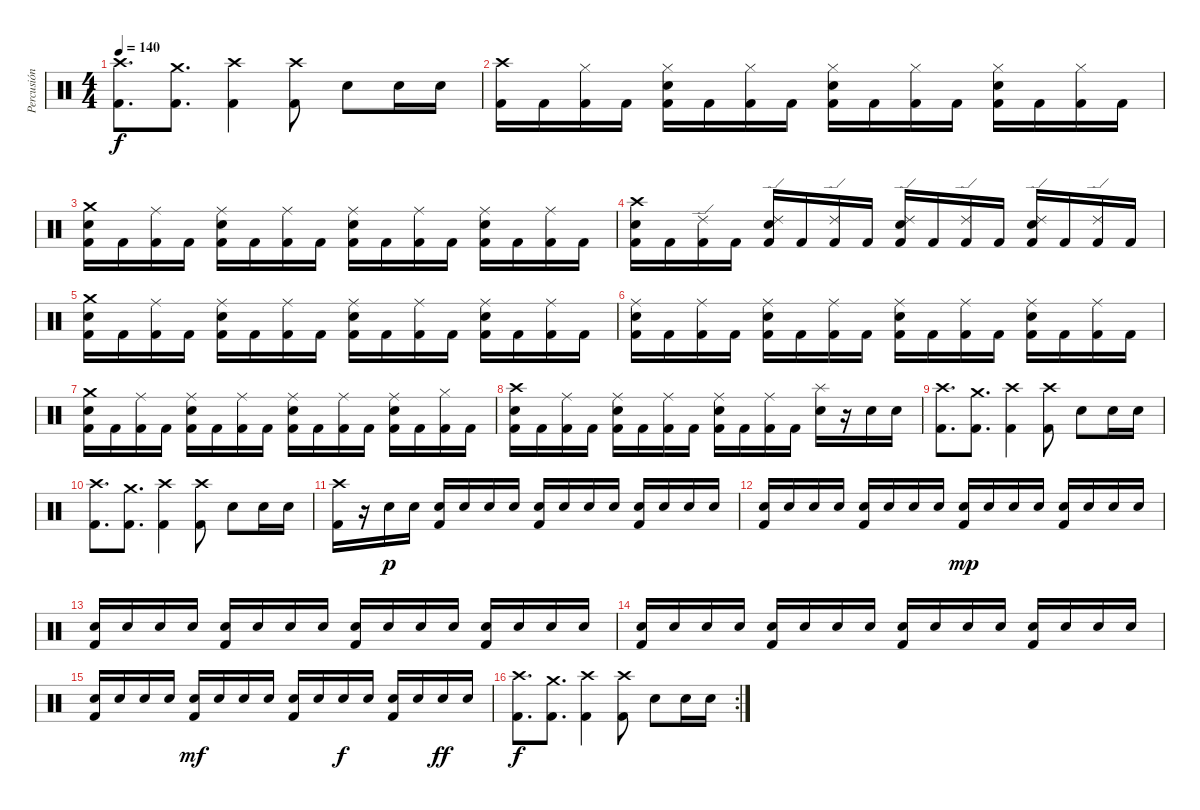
\track ("Percusión" "Percusión") {instrument percussion}
\staff {score}
\articulation defaults
\ts (4 4)
\tempo 140
\clef neutral
\ks c
("Crash high (hit)" "Kick (hit) 2").8{d dy f} ("Crash medium (hit)" "Kick (hit) 2").8{d} ("Crash high (hit)" "Kick (hit) 2").4 ("Crash high (hit)" "Kick (hit) 2").8 "Electric Snare (hit)".8 "Electric Snare (hit)".16 "Electric Snare (hit)".16 |
("Crash high (hit)" "Kick (hit) 2").16 "Kick (hit) 2".16 ("Hi-Hat (closed)" "Kick (hit) 2").16 "Kick (hit) 2".16 ("Hi-Hat (closed)" "Electric Snare (hit)" "Kick (hit) 2").16 "Kick (hit) 2".16 ("Hi-Hat (closed)" "Kick (hit) 2").16 "Kick (hit) 2".16 ("Hi-Hat (closed)" "Electric Snare (hit)" "Kick (hit) 2").16 "Kick (hit) 2".16 ("Hi-Hat (closed)" "Kick (hit) 2").16 "Kick (hit) 2".16 ("Hi-Hat (closed)" "Electric Snare (hit)" "Kick (hit) 2").16 "Kick (hit) 2".16 ("Hi-Hat (closed)" "Kick (hit) 2").16 "Kick (hit) 2".16 |
("Crash medium (hit)" "Electric Snare (hit)" "Kick (hit) 2").16 "Kick (hit) 2".16 ("Ride (middle)" "Kick (hit) 2").16 "Kick (hit) 2".16 ("Ride (middle)" "Electric Snare (hit)" "Kick (hit) 2").16 "Kick (hit) 2".16 ("Ride (middle)" "Kick (hit) 2").16 "Kick (hit) 2".16 ("Ride (middle)" "Electric Snare (hit)" "Kick (hit) 2").16 "Kick (hit) 2".16 ("Ride (middle)" "Kick (hit) 2").16 "Kick (hit) 2".16 ("Ride (middle)" "Electric Snare (hit)" "Kick (hit) 2").16 "Kick (hit) 2".16 ("Ride (middle)" "Kick (hit) 2").16 "Kick (hit) 2".16 |
("Crash high (hit)" "Electric Snare (hit)" "Kick (hit) 2").16 "Kick (hit) 2".16 ("Ride (edge) 2" "Kick (hit) 2").16 "Kick (hit) 2".16 ("Ride (edge) 2" "Electric Snare (hit)" "Kick (hit) 2").16 "Kick (hit) 2".16 ("Ride (edge) 2" "Kick (hit) 2").16 "Kick (hit) 2".16 ("Ride (edge) 2" "Electric Snare (hit)" "Kick (hit) 2").16 "Kick (hit) 2".16 ("Ride (edge) 2" "Kick (hit) 2").16 "Kick (hit) 2".16 ("Ride (edge) 2" "Electric Snare (hit)" "Kick (hit) 2").16 "Kick (hit) 2".16 ("Ride (edge) 2" "Kick (hit) 2").16 "Kick (hit) 2".16 |
("Crash medium (hit)" "Electric Snare (hit)" "Kick (hit) 2").16 "Kick (hit) 2".16 ("Ride (middle)" "Kick (hit) 2").16 "Kick (hit) 2".16 ("Ride (middle)" "Electric Snare (hit)" "Kick (hit) 2").16 "Kick (hit) 2".16 ("Ride (middle)" "Kick (hit) 2").16 "Kick (hit) 2".16 ("Ride (middle)" "Electric Snare (hit)" "Kick (hit) 2").16 "Kick (hit) 2".16 ("Ride (middle)" "Kick (hit) 2").16 "Kick (hit) 2".16 ("Ride (middle)" "Electric Snare (hit)" "Kick (hit) 2").16 "Kick (hit) 2".16 ("Ride (middle)" "Kick (hit) 2").16 "Kick (hit) 2".16 |
("Ride (middle)" "Electric Snare (hit)" "Kick (hit) 2").16 "Kick (hit) 2".16 ("Ride (middle)" "Kick (hit) 2").16 "Kick (hit) 2".16 ("Ride (middle)" "Electric Snare (hit)" "Kick (hit) 2").16 "Kick (hit) 2".16 ("Ride (middle)" "Kick (hit) 2").16 "Kick (hit) 2".16 ("Ride (middle)" "Electric Snare (hit)" "Kick (hit) 2").16 "Kick (hit) 2".16 ("Ride (middle)" "Kick (hit) 2").16 "Kick (hit) 2".16 ("Ride (middle)" "Electric Snare (hit)" "Kick (hit) 2").16 "Kick (hit) 2".16 ("Ride (middle)" "Kick (hit) 2").16 "Kick (hit) 2".16 |
("Crash medium (hit)" "Electric Snare (hit)" "Kick (hit) 2").16 "Kick (hit) 2".16 ("Ride (middle)" "Kick (hit) 2").16 "Kick (hit) 2".16 ("Ride (middle)" "Electric Snare (hit)" "Kick (hit) 2").16 "Kick (hit) 2".16 ("Ride (middle)" "Kick (hit) 2").16 "Kick (hit) 2".16 ("Ride (middle)" "Electric Snare (hit)" "Kick (hit) 2").16 "Kick (hit) 2".16 ("Ride (middle)" "Kick (hit) 2").16 "Kick (hit) 2".16 ("Ride (middle)" "Electric Snare (hit)" "Kick (hit) 2").16 "Kick (hit) 2".16 ("Hi-Hat (closed)" "Kick (hit) 2").16 "Kick (hit) 2".16 |
("Crash high (hit)" "Electric Snare (hit)" "Kick (hit) 2").16 "Kick (hit) 2".16 ("Ride (middle)" "Kick (hit) 2").16 "Kick (hit) 2".16 ("Ride (middle)" "Electric Snare (hit)" "Kick (hit) 2").16 "Kick (hit) 2".16 ("Ride (middle)" "Kick (hit) 2").16 "Kick (hit) 2".16 ("Ride (middle)" "Electric Snare (hit)" "Kick (hit) 2").16 "Kick (hit) 2".16 ("Ride (middle)" "Kick (hit) 2").16 "Kick (hit) 2".16 ("Splash (hit)" "Electric Snare (hit)").16 r.16 "Electric Snare (hit)".16 "Electric Snare (hit)".16 |
("Crash high (hit)" "Kick (hit) 2").8{d} ("Crash medium (hit)" "Kick (hit) 2").8{d} ("Crash high (hit)" "Kick (hit) 2").4 ("Crash high (hit)" "Kick (hit) 2").8 "Electric Snare (hit)".8 "Electric Snare (hit)".16 "Electric Snare (hit)".16 |
("Crash high (hit)" "Kick (hit) 2").8{d} ("Crash medium (hit)" "Kick (hit) 2").8{d} ("Crash high (hit)" "Kick (hit) 2").4 ("Crash high (hit)" "Kick (hit) 2").8 "Electric Snare (hit)".8 "Electric Snare (hit)".16 "Electric Snare (hit)".16 |
("Crash high (hit)" "Kick (hit) 2").16 r.16 "Electric Snare (hit)".16{dy p} "Electric Snare (hit)".16 ("Electric Snare (hit)" "Kick (hit) 2").16 "Electric Snare (hit)".16 "Electric Snare (hit)".16 "Electric Snare (hit)".16 ("Electric Snare (hit)" "Kick (hit) 2").16 "Electric Snare (hit)".16 "Electric Snare (hit)".16 "Electric Snare (hit)".16 ("Electric Snare (hit)" "Kick (hit) 2").16 "Electric Snare (hit)".16 "Electric Snare (hit)".16 "Electric Snare (hit)".16 |
("Electric Snare (hit)" "Kick (hit) 2").16 "Electric Snare (hit)".16 "Electric Snare (hit)".16 "Electric Snare (hit)".16 ("Electric Snare (hit)" "Kick (hit) 2").16 "Electric Snare (hit)".16 "Electric Snare (hit)".16 "Electric Snare (hit)".16 ("Electric Snare (hit)" "Kick (hit) 2").16{dy mp} "Electric Snare (hit)".16 "Electric Snare (hit)".16 "Electric Snare (hit)".16 ("Electric Snare (hit)" "Kick (hit) 2").16 "Electric Snare (hit)".16 "Electric Snare (hit)".16 "Electric Snare (hit)".16 |
("Electric Snare (hit)" "Kick (hit) 2").16 "Electric Snare (hit)".16 "Electric Snare (hit)".16 "Electric Snare (hit)".16 ("Electric Snare (hit)" "Kick (hit) 2").16 "Electric Snare (hit)".16 "Electric Snare (hit)".16 "Electric Snare (hit)".16 ("Electric Snare (hit)" "Kick (hit) 2").16 "Electric Snare (hit)".16 "Electric Snare (hit)".16 "Electric Snare (hit)".16 ("Electric Snare (hit)" "Kick (hit) 2").16 "Electric Snare (hit)".16 "Electric Snare (hit)".16 "Electric Snare (hit)".16 |
("Electric Snare (hit)" "Kick (hit) 2").16 "Electric Snare (hit)".16 "Electric Snare (hit)".16 "Electric Snare (hit)".16 ("Electric Snare (hit)" "Kick (hit) 2").16 "Electric Snare (hit)".16 "Electric Snare (hit)".16 "Electric Snare (hit)".16 ("Electric Snare (hit)" "Kick (hit) 2").16 "Electric Snare (hit)".16 "Electric Snare (hit)".16 "Electric Snare (hit)".16 ("Electric Snare (hit)" "Kick (hit) 2").16 "Electric Snare (hit)".16 "Electric Snare (hit)".16 "Electric Snare (hit)".16 |
("Electric Snare (hit)" "Kick (hit) 2").16 "Electric Snare (hit)".16 "Electric Snare (hit)".16 "Electric Snare (hit)".16 ("Electric Snare (hit)" "Kick (hit) 2").16{dy mf} "Electric Snare (hit)".16 "Electric Snare (hit)".16 "Electric Snare (hit)".16 ("Electric Snare (hit)" "Kick (hit) 2").16 "Electric Snare (hit)".16 "Electric Snare (hit)".16{dy f} "Electric Snare (hit)".16 ("Electric Snare (hit)" "Kick (hit) 2").16 "Electric Snare (hit)".16 "Electric Snare (hit)".16{dy ff} "Electric Snare (hit)".16 |
\rc 2
("Crash high (hit)" "Kick (hit) 2").8{d dy f} ("Crash medium (hit)" "Kick (hit) 2").8{d} ("Crash high (hit)" "Kick (hit) 2").4 ("Crash high (hit)" "Kick (hit) 2").8 "Electric Snare (hit)".8 "Electric Snare (hit)".16 "Electric Snare (hit)".16
